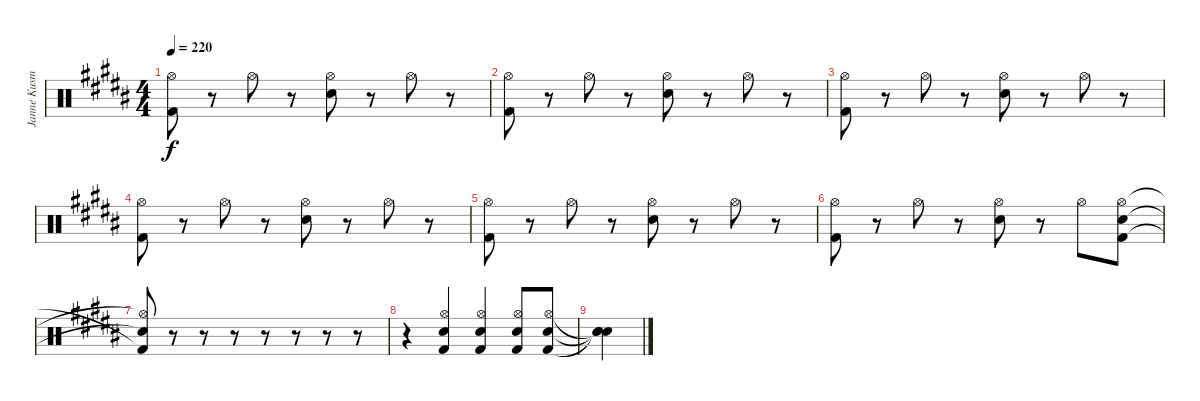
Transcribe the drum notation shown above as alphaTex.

\track ("Janne Kusmin" "Janne Kusm") {instrument percussion}
\staff {score}
\articulation defaults
\ts (4 4)
\tempo 220
\clef neutral
\ks b
("Kick (hit) 2" "Hi-Hat (open)").8{dy f} r.8 "Hi-Hat (open)".8 r.8 ("Electric Snare (hit)" "Hi-Hat (open)").8 r.8 "Hi-Hat (open)".8 r.8 |
("Kick (hit) 2" "Hi-Hat (open)").8 r.8 "Hi-Hat (open)".8 r.8 ("Electric Snare (hit)" "Hi-Hat (open)").8 r.8 "Hi-Hat (open)".8 r.8 |
("Kick (hit) 2" "Hi-Hat (open)").8 r.8 "Hi-Hat (open)".8 r.8 ("Electric Snare (hit)" "Hi-Hat (open)").8 r.8 "Hi-Hat (open)".8 r.8 |
("Kick (hit) 2" "Hi-Hat (open)").8 r.8 "Hi-Hat (open)".8 r.8 ("Electric Snare (hit)" "Hi-Hat (open)").8 r.8 "Hi-Hat (open)".8 r.8 |
("Kick (hit) 2" "Hi-Hat (open)").8 r.8 "Hi-Hat (open)".8 r.8 ("Electric Snare (hit)" "Hi-Hat (open)").8 r.8 "Hi-Hat (open)".8 r.8 |
("Kick (hit) 2" "Hi-Hat (open)").8 r.8 "Hi-Hat (open)".8 r.8 ("Electric Snare (hit)" "Hi-Hat (open)").8 r.8 "Hi-Hat (open)".8 ("Hi-Hat (open)" "Kick (hit) 2" "Electric Snare (hit)").8 |
("Kick (hit) 2"{t} "Electric Snare (hit)"{t} "Hi-Hat (open)"{t}).8 r.8 r.8 r.8 r.8 r.8 r.8 r.8 |
r.4 ("Kick (hit) 2" "Electric Snare (hit)" "Hi-Hat (open)").4 ("Kick (hit) 2" "Hi-Hat (open)" "Electric Snare (hit)").4 ("Kick (hit) 2" "Electric Snare (hit)" "Hi-Hat (open)").8 ("Kick (hit) 2" "Electric Snare (hit)" "Hi-Hat (open)").8 |
\ks g#minor
("Snare (hit)"{t} "Snare (hit)"{t} "Snare (hit)"{t}).4
